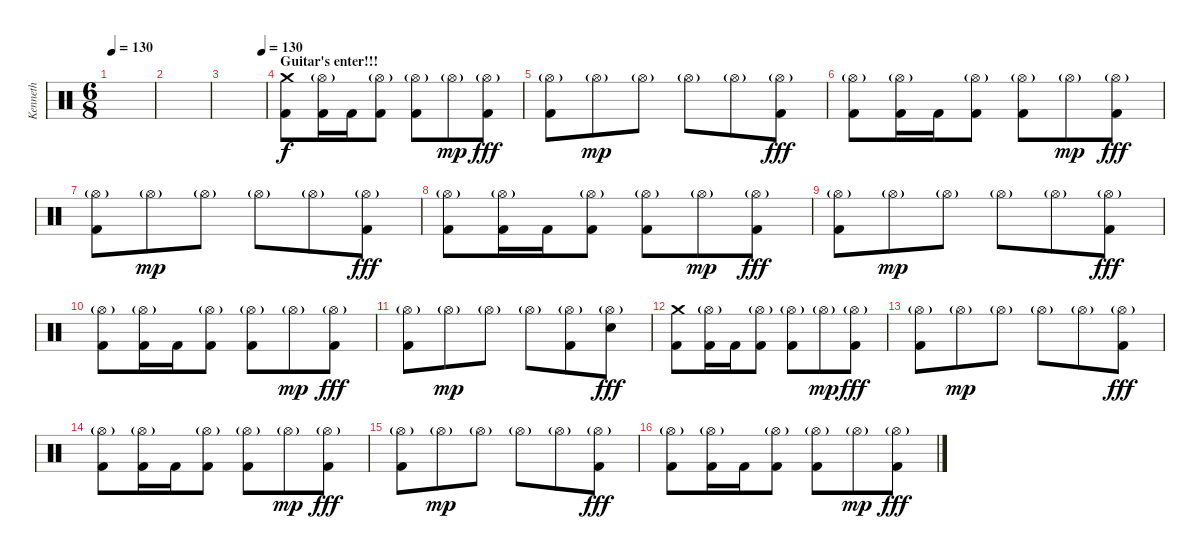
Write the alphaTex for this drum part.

\track ("Kenneth" "Kenneth") {instrument percussion}
\staff {score}
\articulation defaults
\ts (6 8)
\tempo 130
\clef neutral
\ks c
|
|
\tempo (130 0.9166666666666666)
|
\section ("" "Guitar's enter!!!")
("Crash medium (hit)" "Kick (hit) 2").8 ("Hi-Hat (open)"{g} "Kick (hit) 2").16 "Kick (hit) 2".16 ("Hi-Hat (open)"{g} "Kick (hit) 2").8 ("Hi-Hat (open)"{g} "Kick (hit) 2").8 "Hi-Hat (open)"{g}.8{dy mp} ("Hi-Hat (open)"{g} "Kick (hit) 2").8{dy fff} |
("Hi-Hat (open)"{g} "Kick (hit) 2").8 "Hi-Hat (open)"{g}.8{dy mp} "Hi-Hat (open)"{g}.8 "Hi-Hat (open)"{g}.8 "Hi-Hat (open)"{g}.8 ("Hi-Hat (open)"{g} "Kick (hit) 2").8{dy fff} |
("Hi-Hat (open)"{g} "Kick (hit) 2").8 ("Hi-Hat (open)"{g} "Kick (hit) 2").16 "Kick (hit) 2".16 ("Hi-Hat (open)"{g} "Kick (hit) 2").8 ("Hi-Hat (open)"{g} "Kick (hit) 2").8 "Hi-Hat (open)"{g}.8{dy mp} ("Hi-Hat (open)"{g} "Kick (hit) 2").8{dy fff} |
("Hi-Hat (open)"{g} "Kick (hit) 2").8 "Hi-Hat (open)"{g}.8{dy mp} "Hi-Hat (open)"{g}.8 "Hi-Hat (open)"{g}.8 "Hi-Hat (open)"{g}.8 ("Hi-Hat (open)"{g} "Kick (hit) 2").8{dy fff} |
("Hi-Hat (open)"{g} "Kick (hit) 2").8 ("Hi-Hat (open)"{g} "Kick (hit) 2").16 "Kick (hit) 2".16 ("Hi-Hat (open)"{g} "Kick (hit) 2").8 ("Hi-Hat (open)"{g} "Kick (hit) 2").8 "Hi-Hat (open)"{g}.8{dy mp} ("Hi-Hat (open)"{g} "Kick (hit) 2").8{dy fff} |
("Hi-Hat (open)"{g} "Kick (hit) 2").8 "Hi-Hat (open)"{g}.8{dy mp} "Hi-Hat (open)"{g}.8 "Hi-Hat (open)"{g}.8 "Hi-Hat (open)"{g}.8 ("Hi-Hat (open)"{g} "Kick (hit) 2").8{dy fff} |
("Hi-Hat (open)"{g} "Kick (hit) 2").8 ("Hi-Hat (open)"{g} "Kick (hit) 2").16 "Kick (hit) 2".16 ("Hi-Hat (open)"{g} "Kick (hit) 2").8 ("Hi-Hat (open)"{g} "Kick (hit) 2").8 "Hi-Hat (open)"{g}.8{dy mp} ("Hi-Hat (open)"{g} "Kick (hit) 2").8{dy fff} |
("Hi-Hat (open)"{g} "Kick (hit) 2").8 "Hi-Hat (open)"{g}.8{dy mp} "Hi-Hat (open)"{g}.8 "Hi-Hat (open)"{g}.8 ("Hi-Hat (open)"{g} "Kick (hit) 2").8 ("Hi-Hat (open)"{g} "Electric Snare (hit)").8{dy fff} |
("Crash medium (hit)" "Kick (hit) 2").8 ("Hi-Hat (open)"{g} "Kick (hit) 2").16 "Kick (hit) 2".16 ("Hi-Hat (open)"{g} "Kick (hit) 2").8 ("Hi-Hat (open)"{g} "Kick (hit) 2").8 "Hi-Hat (open)"{g}.8{dy mp} ("Hi-Hat (open)"{g} "Kick (hit) 2").8{dy fff} |
("Hi-Hat (open)"{g} "Kick (hit) 2").8 "Hi-Hat (open)"{g}.8{dy mp} "Hi-Hat (open)"{g}.8 "Hi-Hat (open)"{g}.8 "Hi-Hat (open)"{g}.8 ("Hi-Hat (open)"{g} "Kick (hit) 2").8{dy fff} |
("Hi-Hat (open)"{g} "Kick (hit) 2").8 ("Hi-Hat (open)"{g} "Kick (hit) 2").16 "Kick (hit) 2".16 ("Hi-Hat (open)"{g} "Kick (hit) 2").8 ("Hi-Hat (open)"{g} "Kick (hit) 2").8 "Hi-Hat (open)"{g}.8{dy mp} ("Hi-Hat (open)"{g} "Kick (hit) 2").8{dy fff} |
("Hi-Hat (open)"{g} "Kick (hit) 2").8 "Hi-Hat (open)"{g}.8{dy mp} "Hi-Hat (open)"{g}.8 "Hi-Hat (open)"{g}.8 "Hi-Hat (open)"{g}.8 ("Hi-Hat (open)"{g} "Kick (hit) 2").8{dy fff} |
("Hi-Hat (open)"{g} "Kick (hit) 2").8 ("Hi-Hat (open)"{g} "Kick (hit) 2").16 "Kick (hit) 2".16 ("Hi-Hat (open)"{g} "Kick (hit) 2").8 ("Hi-Hat (open)"{g} "Kick (hit) 2").8 "Hi-Hat (open)"{g}.8{dy mp} ("Hi-Hat (open)"{g} "Kick (hit) 2").8{dy fff}
